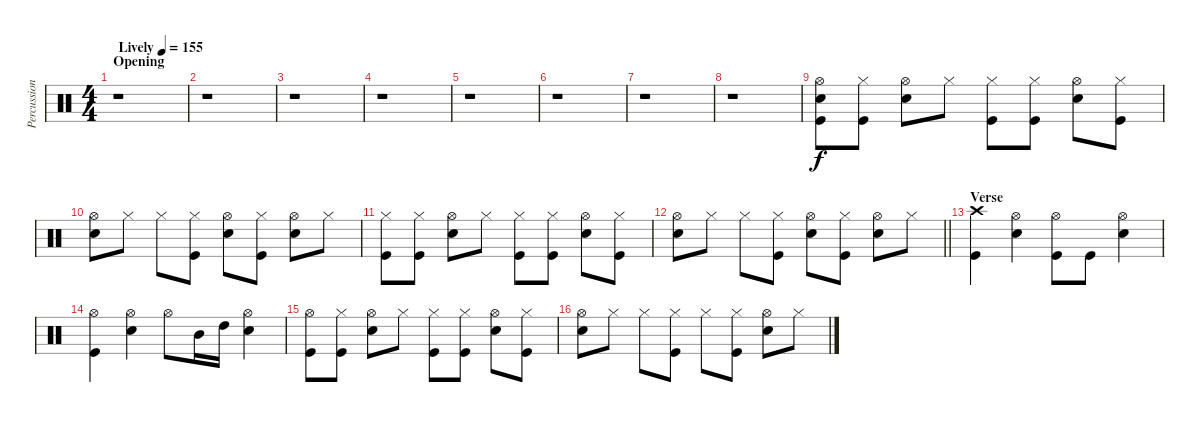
\track ("Percussion" "Percussion") {instrument percussion}
\staff {score}
\articulation defaults
\ts (4 4)
\section ("" "Opening")
\tempo (155 "Lively")
\clef neutral
\ks c
r.1{dy f} |
r.1 |
r.1 |
r.1 |
r.1 |
r.1 |
r.1 |
r.1 |
("Hi-Hat (open)" "Snare (hit) 2" "Kick (hit)").8 ("Hi-Hat (closed)" "Kick (hit)").8 ("Hi-Hat (open)" "Snare (hit) 2").8 "Hi-Hat (closed)".8 ("Hi-Hat (closed)" "Kick (hit)").8 ("Hi-Hat (closed)" "Kick (hit)").8 ("Hi-Hat (open)" "Snare (hit) 2").8 ("Hi-Hat (closed)" "Kick (hit)").8 |
("Hi-Hat (open)" "Snare (hit) 2").8 "Hi-Hat (closed)".8 "Hi-Hat (closed)".8 ("Hi-Hat (closed)" "Kick (hit)").8 ("Hi-Hat (open)" "Snare (hit) 2").8 ("Hi-Hat (closed)" "Kick (hit)").8 ("Hi-Hat (open)" "Snare (hit) 2").8 "Hi-Hat (closed)".8 |
("Hi-Hat (closed)" "Kick (hit)").8 ("Hi-Hat (closed)" "Kick (hit)").8 ("Hi-Hat (open)" "Snare (hit) 2").8 "Hi-Hat (closed)".8 ("Hi-Hat (closed)" "Kick (hit)").8 ("Hi-Hat (closed)" "Kick (hit)").8 ("Hi-Hat (open)" "Snare (hit) 2").8 ("Hi-Hat (closed)" "Kick (hit)").8 |
\barLineRight lightlight
("Hi-Hat (open)" "Snare (hit) 2").8 "Hi-Hat (closed)".8 "Hi-Hat (closed)".8 ("Hi-Hat (closed)" "Kick (hit)").8 ("Hi-Hat (open)" "Snare (hit) 2").8 ("Hi-Hat (closed)" "Kick (hit)").8 ("Hi-Hat (open)" "Snare (hit) 2").8 "Hi-Hat (closed)".8 |
\section ("" "Verse")
("Crash high (hit)" "Kick (hit)").4 ("Hi-Hat (open)" "Snare (hit) 2").4 ("Hi-Hat (open)" "Kick (hit)").8 "Kick (hit)".8 ("Hi-Hat (open)" "Snare (hit) 2").4 |
("Hi-Hat (open)" "Kick (hit)").4 ("Hi-Hat (open)" "Snare (hit) 2").4 "Hi-Hat (open)".8 "Mid Tom (hit)".16 "High Tom (hit)".16 ("Hi-Hat (open)" "Snare (hit) 2").4 |
("Hi-Hat (open)" "Kick (hit)").8 ("Hi-Hat (closed)" "Kick (hit)").8 ("Hi-Hat (open)" "Snare (hit) 2").8 "Hi-Hat (closed)".8 ("Hi-Hat (closed)" "Kick (hit)").8 ("Hi-Hat (closed)" "Kick (hit)").8 ("Hi-Hat (open)" "Snare (hit) 2").8 ("Hi-Hat (closed)" "Kick (hit)").8 |
("Hi-Hat (open)" "Snare (hit) 2").8 "Hi-Hat (closed)".8 "Hi-Hat (closed)".8 ("Hi-Hat (closed)" "Kick (hit)").8 "Hi-Hat (closed)".8 ("Hi-Hat (closed)" "Kick (hit)").8 ("Hi-Hat (open)" "Snare (hit) 2").8 "Hi-Hat (closed)".8
